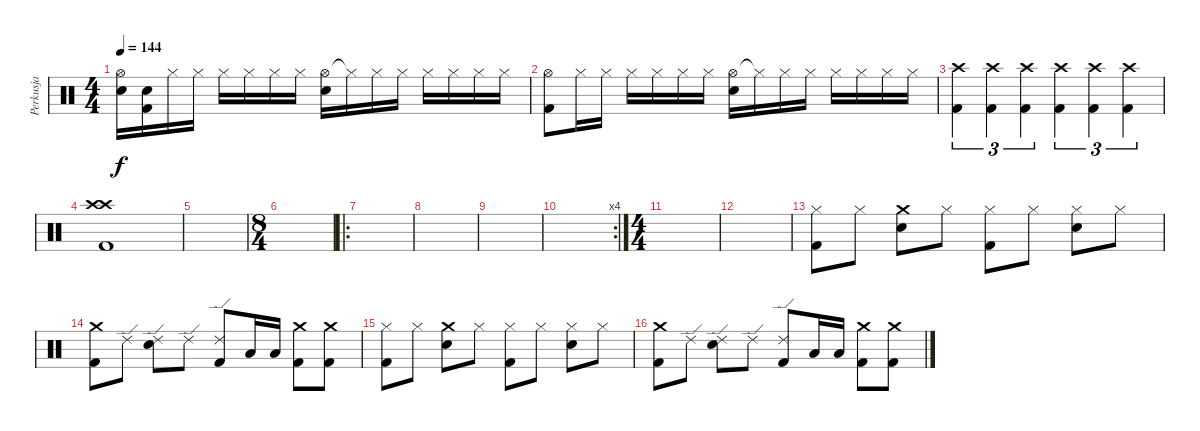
\track ("Perkusja" "Perkusja") {instrument percussion}
\staff {score}
\articulation defaults
\ts (4 4)
\tempo 144
\clef neutral
\ks c
("Hi-Hat (open)" "Electric Snare (hit)").16{dy f} ("Electric Snare (hit)" "Kick (hit) 2").16 "Hi-Hat (closed)".16 "Hi-Hat (closed)".16 "Hi-Hat (closed)".16 "Hi-Hat (closed)".16 "Hi-Hat (closed)".16 "Hi-Hat (closed)".16 ("Hi-Hat (open)" "Electric Snare (hit)").16 "Hi-Hat (closed)"{t}.16 "Hi-Hat (closed)".16 "Hi-Hat (closed)".16 "Hi-Hat (closed)".16 "Hi-Hat (closed)".16 "Hi-Hat (closed)".16 "Hi-Hat (closed)".16 |
("Hi-Hat (open)" "Kick (hit) 2").8 "Hi-Hat (closed)".16 "Hi-Hat (closed)".16 "Hi-Hat (closed)".16 "Hi-Hat (closed)".16 "Hi-Hat (closed)".16 "Hi-Hat (closed)".16 ("Hi-Hat (open)" "Electric Snare (hit)").16 "Hi-Hat (closed)"{t}.16 "Hi-Hat (closed)".16 "Hi-Hat (closed)".16 "Hi-Hat (closed)".16 "Hi-Hat (closed)".16 "Hi-Hat (closed)".16 "Hi-Hat (closed)".16 |
("Crash high (hit)" "Kick (hit) 2").4{tu (3 2)} ("Crash high (hit)" "Kick (hit) 2").4{tu (3 2)} ("Crash high (hit)" "Kick (hit) 2").4{tu (3 2)} ("Crash high (hit)" "Kick (hit) 2").4{tu (3 2)} ("Crash high (hit)" "Kick (hit) 2").4{tu (3 2)} ("Crash high (hit)" "Kick (hit) 2").4{tu (3 2)} |
("Crash high (hit)" "Crash high (hit)" "Kick (hit) 2").1 |
|
\ts (8 4)
|
\ro
|
|
|
\rc 4
|
\ts (4 4)
|
|
("Hi-Hat (closed)" "Kick (hit) 2").8 "Hi-Hat (closed)".8 ("Crash medium (hit)" "Snare (hit) 2").8 "Hi-Hat (closed)".8 ("Hi-Hat (closed)" "Kick (hit) 2").8 "Hi-Hat (closed)".8 ("Snare (hit) 2" "Hi-Hat (closed)").8 "Hi-Hat (closed)".8 |
("Crash medium (hit)" "Kick (hit) 2").8 "Ride (edge) 2".8 ("Snare (hit) 2" "Ride (edge) 2").8 "Ride (edge) 2".8 ("Ride (edge) 2" "Kick (hit) 2").8 "Low Tom (hit)".16 "Low Tom (hit)".16 ("Crash medium (hit)" "Kick (hit) 2").8 ("Crash medium (hit)" "Kick (hit) 2").8 |
("Hi-Hat (closed)" "Kick (hit) 2").8 "Hi-Hat (closed)".8 ("Crash medium (hit)" "Snare (hit) 2").8 "Hi-Hat (closed)".8 ("Hi-Hat (closed)" "Kick (hit) 2").8 "Hi-Hat (closed)".8 ("Snare (hit) 2" "Hi-Hat (closed)").8 "Hi-Hat (closed)".8 |
("Crash medium (hit)" "Kick (hit) 2").8 "Ride (edge) 2".8 ("Snare (hit) 2" "Ride (edge) 2").8 "Ride (edge) 2".8 ("Ride (edge) 2" "Kick (hit) 2").8 "Low Tom (hit)".16 "Low Tom (hit)".16 ("Crash medium (hit)" "Kick (hit) 2").8 ("Crash medium (hit)" "Kick (hit) 2").8
